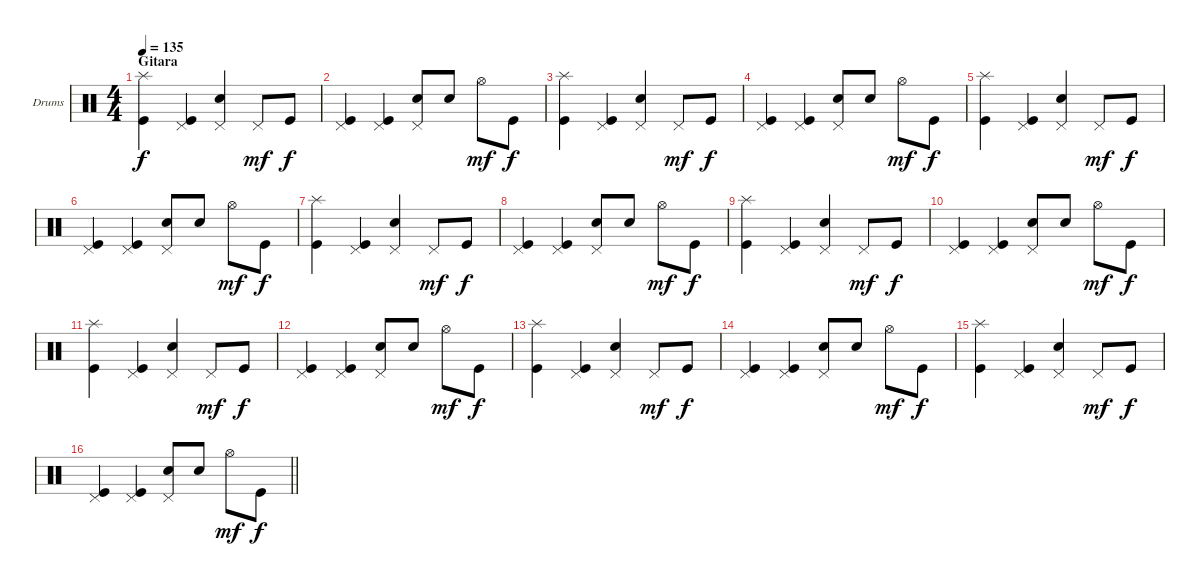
\bracketExtendMode groupsimilarinstruments
\firstSystemTrackNameOrientation horizontal
\otherSystemsTrackNameOrientation horizontal
\track ("Drumkit" "Drums") {instrument percussion}
\staff {score}
\articulation defaults
\ts (4 4)
\section ("" "Gitara")
\tempo 135
\clef neutral
\ks c
("Kick (hit)" "Splash (hit)").4{dy f} ("Kick (hit)" "Pedal Hi-Hat (hit)").4 ("Snare (hit) 2" "Pedal Hi-Hat (hit)").4 "Pedal Hi-Hat (hit)".8{dy mf} "Kick (hit)".8{dy f} |
("Kick (hit)" "Pedal Hi-Hat (hit)").4 ("Kick (hit)" "Pedal Hi-Hat (hit)").4 ("Snare (hit) 2" "Pedal Hi-Hat (hit)").8 "Snare (hit) 2".8 "Hi-Hat (open)".8{dy mf} "Kick (hit)".8{dy f} |
("Kick (hit)" "Splash (hit)").4 ("Kick (hit)" "Pedal Hi-Hat (hit)").4 ("Snare (hit) 2" "Pedal Hi-Hat (hit)").4 "Pedal Hi-Hat (hit)".8{dy mf} "Kick (hit)".8{dy f} |
("Kick (hit)" "Pedal Hi-Hat (hit)").4 ("Kick (hit)" "Pedal Hi-Hat (hit)").4 ("Snare (hit) 2" "Pedal Hi-Hat (hit)").8 "Snare (hit) 2".8 "Hi-Hat (open)".8{dy mf} "Kick (hit)".8{dy f} |
("Kick (hit)" "Splash (hit)").4 ("Kick (hit)" "Pedal Hi-Hat (hit)").4 ("Snare (hit) 2" "Pedal Hi-Hat (hit)").4 "Pedal Hi-Hat (hit)".8{dy mf} "Kick (hit)".8{dy f} |
("Kick (hit)" "Pedal Hi-Hat (hit)").4 ("Kick (hit)" "Pedal Hi-Hat (hit)").4 ("Snare (hit) 2" "Pedal Hi-Hat (hit)").8 "Snare (hit) 2".8 "Hi-Hat (open)".8{dy mf} "Kick (hit)".8{dy f} |
("Kick (hit)" "Splash (hit)").4 ("Kick (hit)" "Pedal Hi-Hat (hit)").4 ("Snare (hit) 2" "Pedal Hi-Hat (hit)").4 "Pedal Hi-Hat (hit)".8{dy mf} "Kick (hit)".8{dy f} |
("Kick (hit)" "Pedal Hi-Hat (hit)").4 ("Kick (hit)" "Pedal Hi-Hat (hit)").4 ("Snare (hit) 2" "Pedal Hi-Hat (hit)").8 "Snare (hit) 2".8 "Hi-Hat (open)".8{dy mf} "Kick (hit)".8{dy f} |
("Kick (hit)" "Splash (hit)").4 ("Kick (hit)" "Pedal Hi-Hat (hit)").4 ("Snare (hit) 2" "Pedal Hi-Hat (hit)").4 "Pedal Hi-Hat (hit)".8{dy mf} "Kick (hit)".8{dy f} |
("Kick (hit)" "Pedal Hi-Hat (hit)").4 ("Kick (hit)" "Pedal Hi-Hat (hit)").4 ("Snare (hit) 2" "Pedal Hi-Hat (hit)").8 "Snare (hit) 2".8 "Hi-Hat (open)".8{dy mf} "Kick (hit)".8{dy f} |
("Kick (hit)" "Splash (hit)").4 ("Kick (hit)" "Pedal Hi-Hat (hit)").4 ("Snare (hit) 2" "Pedal Hi-Hat (hit)").4 "Pedal Hi-Hat (hit)".8{dy mf} "Kick (hit)".8{dy f} |
("Kick (hit)" "Pedal Hi-Hat (hit)").4 ("Kick (hit)" "Pedal Hi-Hat (hit)").4 ("Snare (hit) 2" "Pedal Hi-Hat (hit)").8 "Snare (hit) 2".8 "Hi-Hat (open)".8{dy mf} "Kick (hit)".8{dy f} |
("Kick (hit)" "Splash (hit)").4 ("Kick (hit)" "Pedal Hi-Hat (hit)").4 ("Snare (hit) 2" "Pedal Hi-Hat (hit)").4 "Pedal Hi-Hat (hit)".8{dy mf} "Kick (hit)".8{dy f} |
("Kick (hit)" "Pedal Hi-Hat (hit)").4 ("Kick (hit)" "Pedal Hi-Hat (hit)").4 ("Snare (hit) 2" "Pedal Hi-Hat (hit)").8 "Snare (hit) 2".8 "Hi-Hat (open)".8{dy mf} "Kick (hit)".8{dy f} |
("Kick (hit)" "Splash (hit)").4 ("Kick (hit)" "Pedal Hi-Hat (hit)").4 ("Snare (hit) 2" "Pedal Hi-Hat (hit)").4 "Pedal Hi-Hat (hit)".8{dy mf} "Kick (hit)".8{dy f} |
\barLineRight lightlight
("Kick (hit)" "Pedal Hi-Hat (hit)").4 ("Kick (hit)" "Pedal Hi-Hat (hit)").4 ("Snare (hit) 2" "Pedal Hi-Hat (hit)").8 "Snare (hit) 2".8 "Hi-Hat (open)".8{dy mf} "Kick (hit)".8{dy f}
